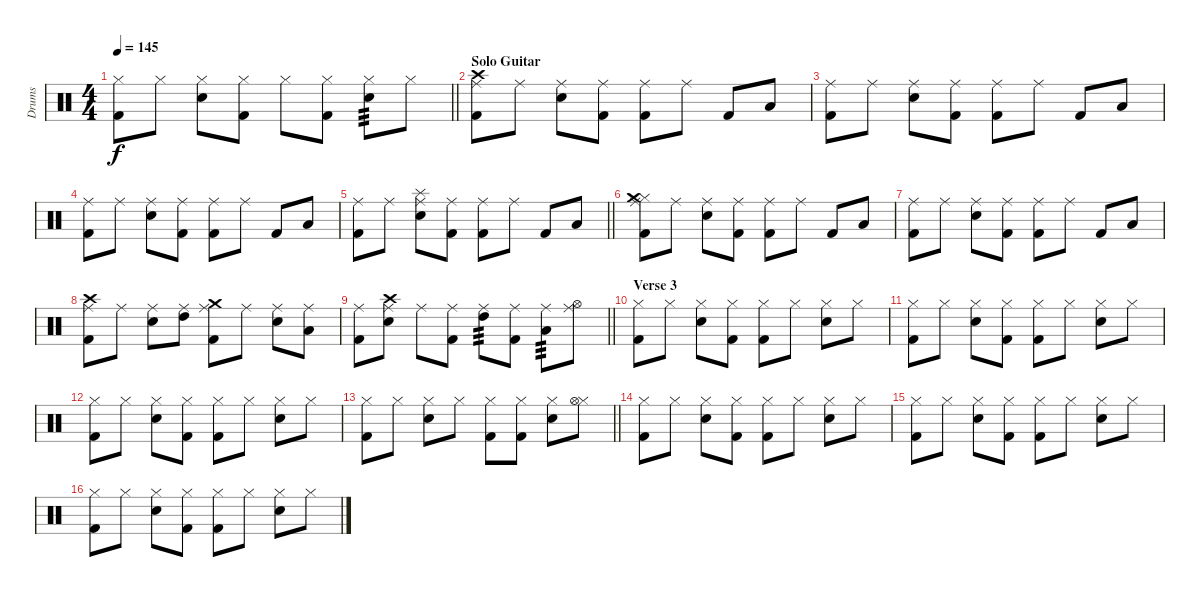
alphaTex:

\track ("Drums" "Drums") {instrument percussion}
\staff {score}
\articulation defaults
\ts (4 4)
\tempo 145
\clef neutral
\barLineRight lightlight
\ks c
("Kick (hit) 2" "Hi-Hat (closed)").8{dy f} "Hi-Hat (closed)".8 ("Snare (hit) 2" "Hi-Hat (closed)").8 ("Kick (hit) 2" "Hi-Hat (closed)").8 "Hi-Hat (closed)".8 ("Kick (hit) 2" "Hi-Hat (closed)").8 ("Snare (hit) 2" "Hi-Hat (closed)").8{tp 3} "Hi-Hat (closed)".8 |
\section ("" "Solo Guitar")
("Kick (hit) 2" "Ride (middle)" "Crash high (hit)").8 "Ride (middle)".8 ("Snare (hit) 2" "Ride (middle)").8 ("Kick (hit) 2" "Ride (middle)").8 ("Kick (hit) 2" "Ride (middle)").8 "Ride (middle)".8 "Kick (hit) 2".8 "Low Tom (hit)".8 |
("Kick (hit) 2" "Ride (middle)").8 "Ride (middle)".8 ("Snare (hit) 2" "Ride (middle)").8 ("Kick (hit) 2" "Ride (middle)").8 ("Kick (hit) 2" "Ride (middle)").8 "Ride (middle)".8 "Kick (hit) 2".8 "Low Tom (hit)".8 |
("Kick (hit) 2" "Ride (middle)").8 "Ride (middle)".8 ("Snare (hit) 2" "Ride (middle)").8 ("Kick (hit) 2" "Ride (middle)").8 ("Kick (hit) 2" "Ride (middle)").8 "Ride (middle)".8 "Kick (hit) 2".8 "Low Tom (hit)".8 |
\barLineRight lightlight
("Kick (hit) 2" "Ride (middle)").8 "Ride (middle)".8 ("Snare (hit) 2" "Ride (middle)" "Splash (hit)").8 ("Kick (hit) 2" "Ride (middle)").8 ("Kick (hit) 2" "Ride (middle)").8 "Ride (middle)".8 "Kick (hit) 2".8 "Low Tom (hit)".8 |
("Kick (hit) 2" "Ride (middle)" "Hi-Hat (closed)" "Crash medium (hit)").8 "Ride (middle)".8 ("Snare (hit) 2" "Ride (middle)").8 ("Kick (hit) 2" "Ride (middle)").8 ("Kick (hit) 2" "Ride (middle)").8 "Ride (middle)".8 "Kick (hit) 2".8 "Low Tom (hit)".8 |
("Kick (hit) 2" "Ride (middle)").8 "Ride (middle)".8 ("Snare (hit) 2" "Ride (middle)").8 ("Kick (hit) 2" "Ride (middle)").8 ("Kick (hit) 2" "Ride (middle)").8 "Ride (middle)".8 "Kick (hit) 2".8 "Low Tom (hit)".8 |
("Kick (hit) 2" "Ride (middle)" "Crash high (hit)").8 "Ride (middle)".8 ("Snare (hit) 2" "Ride (middle)").8 ("High Tom (hit)" "Ride (middle)").8 ("Kick (hit) 2" "Ride (middle)" "Crash medium (hit)").8 "Ride (middle)".8 ("Snare (hit) 2" "Ride (middle)").8 ("Low Tom (hit)" "Ride (middle)").8 |
\barLineRight lightlight
("Kick (hit) 2" "Ride (middle)").8 ("Snare (hit) 2" "Ride (middle)" "Crash high (hit)").8 "Ride (middle)".8 ("Kick (hit) 2" "Ride (middle)").8 ("High Tom (hit)" "Ride (middle)").8{tp 3} ("Kick (hit) 2" "Ride (middle)").8 ("Low Tom (hit)" "Ride (middle)").8{tp 3} ("Ride (middle)" "Hi-Hat (open)").8 |
\section ("" "Verse 3")
("Kick (hit) 2" "Hi-Hat (closed)").8 "Hi-Hat (closed)".8 ("Snare (hit) 2" "Hi-Hat (closed)").8 ("Kick (hit) 2" "Hi-Hat (closed)").8 ("Kick (hit) 2" "Hi-Hat (closed)").8 "Hi-Hat (closed)".8 ("Snare (hit) 2" "Hi-Hat (closed)").8 "Hi-Hat (closed)".8 |
("Kick (hit) 2" "Hi-Hat (closed)").8 "Hi-Hat (closed)".8 ("Snare (hit) 2" "Hi-Hat (closed)").8 ("Kick (hit) 2" "Hi-Hat (closed)").8 ("Kick (hit) 2" "Hi-Hat (closed)").8 "Hi-Hat (closed)".8 ("Snare (hit) 2" "Hi-Hat (closed)").8 "Hi-Hat (closed)".8 |
("Kick (hit) 2" "Hi-Hat (closed)").8 "Hi-Hat (closed)".8 ("Snare (hit) 2" "Hi-Hat (closed)").8 ("Kick (hit) 2" "Hi-Hat (closed)").8 ("Kick (hit) 2" "Hi-Hat (closed)").8 "Hi-Hat (closed)".8 ("Snare (hit) 2" "Hi-Hat (closed)").8 "Hi-Hat (closed)".8 |
\barLineRight lightlight
("Kick (hit) 2" "Hi-Hat (closed)").8 "Hi-Hat (closed)".8 ("Snare (hit) 2" "Hi-Hat (closed)").8 "Hi-Hat (closed)".8 ("Kick (hit) 2" "Hi-Hat (closed)").8 ("Kick (hit) 2" "Hi-Hat (closed)").8 ("Snare (hit) 2" "Hi-Hat (closed)").8 ("Hi-Hat (closed)" "Hi-Hat (open)").8 |
("Kick (hit) 2" "Hi-Hat (closed)").8 "Hi-Hat (closed)".8 ("Snare (hit) 2" "Hi-Hat (closed)").8 ("Kick (hit) 2" "Hi-Hat (closed)").8 ("Kick (hit) 2" "Hi-Hat (closed)").8 "Hi-Hat (closed)".8 ("Snare (hit) 2" "Hi-Hat (closed)").8 "Hi-Hat (closed)".8 |
("Kick (hit) 2" "Hi-Hat (closed)").8 "Hi-Hat (closed)".8 ("Snare (hit) 2" "Hi-Hat (closed)").8 ("Kick (hit) 2" "Hi-Hat (closed)").8 ("Kick (hit) 2" "Hi-Hat (closed)").8 "Hi-Hat (closed)".8 ("Snare (hit) 2" "Hi-Hat (closed)").8 "Hi-Hat (closed)".8 |
("Kick (hit) 2" "Hi-Hat (closed)").8 "Hi-Hat (closed)".8 ("Snare (hit) 2" "Hi-Hat (closed)").8 ("Kick (hit) 2" "Hi-Hat (closed)").8 ("Kick (hit) 2" "Hi-Hat (closed)").8 "Hi-Hat (closed)".8 ("Snare (hit) 2" "Hi-Hat (closed)").8 "Hi-Hat (closed)".8
